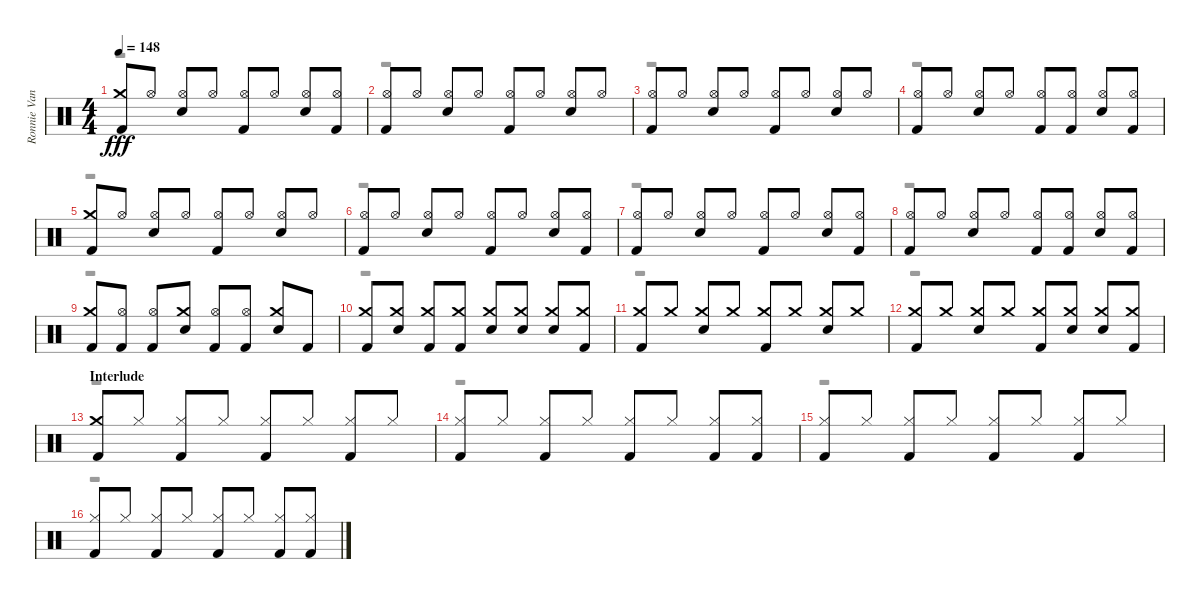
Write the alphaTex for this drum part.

\track ("Ronnie Vannucci Jr. - Drums" "Ronnie Van") {instrument percussion}
\staff {score}
\articulation defaults
\voice
\ts (4 4)
\tempo 148
\clef neutral
\ks c
("Crash medium (hit)" "Kick (hit) 2").8{dy fff} "Hi-Hat (open)".8 ("Hi-Hat (open)" "Electric Snare (hit)").8 "Hi-Hat (open)".8 ("Hi-Hat (open)" "Kick (hit) 2").8 "Hi-Hat (open)".8 ("Hi-Hat (open)" "Electric Snare (hit)").8 ("Hi-Hat (open)" "Kick (hit) 2").8 |
("Hi-Hat (open)" "Kick (hit) 2").8 "Hi-Hat (open)".8 ("Hi-Hat (open)" "Electric Snare (hit)").8 "Hi-Hat (open)".8 ("Hi-Hat (open)" "Kick (hit) 2").8 "Hi-Hat (open)".8 ("Hi-Hat (open)" "Electric Snare (hit)").8 "Hi-Hat (open)".8 |
("Hi-Hat (open)" "Kick (hit) 2").8 "Hi-Hat (open)".8 ("Hi-Hat (open)" "Electric Snare (hit)").8 "Hi-Hat (open)".8 ("Hi-Hat (open)" "Kick (hit) 2").8 "Hi-Hat (open)".8 ("Hi-Hat (open)" "Electric Snare (hit)").8 "Hi-Hat (open)".8 |
("Hi-Hat (open)" "Kick (hit) 2").8 "Hi-Hat (open)".8 ("Hi-Hat (open)" "Electric Snare (hit)").8 "Hi-Hat (open)".8 ("Hi-Hat (open)" "Kick (hit) 2").8 ("Hi-Hat (open)" "Kick (hit) 2").8 ("Hi-Hat (open)" "Electric Snare (hit)").8 ("Hi-Hat (open)" "Kick (hit) 2").8 |
("Crash medium (hit)" "Kick (hit) 2").8 "Hi-Hat (open)".8 ("Hi-Hat (open)" "Electric Snare (hit)").8 "Hi-Hat (open)".8 ("Hi-Hat (open)" "Kick (hit) 2").8 "Hi-Hat (open)".8 ("Hi-Hat (open)" "Electric Snare (hit)").8 "Hi-Hat (open)".8 |
("Hi-Hat (open)" "Kick (hit) 2").8 "Hi-Hat (open)".8 ("Hi-Hat (open)" "Electric Snare (hit)").8 "Hi-Hat (open)".8 ("Hi-Hat (open)" "Kick (hit) 2").8 "Hi-Hat (open)".8 ("Hi-Hat (open)" "Electric Snare (hit)").8 ("Hi-Hat (open)" "Kick (hit) 2").8 |
("Hi-Hat (open)" "Kick (hit) 2").8 "Hi-Hat (open)".8 ("Hi-Hat (open)" "Electric Snare (hit)").8 "Hi-Hat (open)".8 ("Hi-Hat (open)" "Kick (hit) 2").8 "Hi-Hat (open)".8 ("Hi-Hat (open)" "Electric Snare (hit)").8 ("Hi-Hat (open)" "Kick (hit) 2").8 |
("Hi-Hat (open)" "Kick (hit) 2").8 "Hi-Hat (open)".8 ("Hi-Hat (open)" "Electric Snare (hit)").8 "Hi-Hat (open)".8 ("Hi-Hat (open)" "Kick (hit) 2").8 ("Hi-Hat (open)" "Kick (hit) 2").8 ("Hi-Hat (open)" "Electric Snare (hit)").8 ("Hi-Hat (open)" "Kick (hit) 2").8 |
("Crash medium (hit)" "Kick (hit) 2").8 ("Hi-Hat (open)" "Kick (hit) 2").8 ("Hi-Hat (open)" "Kick (hit) 2").8 ("Crash medium (hit)" "Snare (hit) 2").8 ("Hi-Hat (open)" "Kick (hit) 2").8 ("Hi-Hat (open)" "Kick (hit) 2").8 ("Crash medium (hit)" "Electric Snare (hit)").8 "Kick (hit) 2".8 |
("Crash medium (hit)" "Kick (hit) 2").8 ("Crash medium (hit)" "Snare (hit) 2").8 ("Crash medium (hit)" "Kick (hit) 2").8 ("Crash medium (hit)" "Kick (hit) 2").8 ("Crash medium (hit)" "Snare (hit) 2").8 ("Crash medium (hit)" "Snare (hit) 2").8 ("Crash medium (hit)" "Electric Snare (hit)").8 ("Crash medium (hit)" "Kick (hit) 2").8 |
("Crash medium (hit)" "Kick (hit) 2").8 "Crash medium (hit)".8 ("Crash medium (hit)" "Snare (hit) 2").8 "Crash medium (hit)".8 ("Crash medium (hit)" "Kick (hit) 2").8 "Crash medium (hit)".8 ("Crash medium (hit)" "Electric Snare (hit)").8 "Crash medium (hit)".8 |
("Crash medium (hit)" "Kick (hit) 2").8 "Crash medium (hit)".8 ("Crash medium (hit)" "Snare (hit) 2").8 "Crash medium (hit)".8 ("Crash medium (hit)" "Kick (hit) 2").8 ("Crash medium (hit)" "Electric Snare (hit)").8 ("Crash medium (hit)" "Electric Snare (hit)").8 ("Crash medium (hit)" "Kick (hit) 2").8 |
\section ("" "Interlude")
("Crash medium (hit)" "Kick (hit) 2").8 "Hi-Hat (closed)".8 ("Hi-Hat (closed)" "Kick (hit) 2").8 "Hi-Hat (closed)".8 ("Hi-Hat (closed)" "Kick (hit) 2").8 "Hi-Hat (closed)".8 ("Hi-Hat (closed)" "Kick (hit) 2").8 "Hi-Hat (closed)".8 |
("Hi-Hat (closed)" "Kick (hit) 2").8 "Hi-Hat (closed)".8 ("Hi-Hat (closed)" "Kick (hit) 2").8 "Hi-Hat (closed)".8 ("Hi-Hat (closed)" "Kick (hit) 2").8 "Hi-Hat (closed)".8 ("Hi-Hat (closed)" "Kick (hit) 2").8 ("Hi-Hat (closed)" "Kick (hit) 2").8 |
("Hi-Hat (closed)" "Kick (hit) 2").8 "Hi-Hat (closed)".8 ("Hi-Hat (closed)" "Kick (hit) 2").8 "Hi-Hat (closed)".8 ("Hi-Hat (closed)" "Kick (hit) 2").8 "Hi-Hat (closed)".8 ("Hi-Hat (closed)" "Kick (hit) 2").8 "Hi-Hat (closed)".8 |
("Hi-Hat (closed)" "Kick (hit) 2").8 "Hi-Hat (closed)".8 ("Hi-Hat (closed)" "Kick (hit) 2").8 "Hi-Hat (closed)".8 ("Hi-Hat (closed)" "Kick (hit) 2").8 "Hi-Hat (closed)".8 ("Hi-Hat (closed)" "Kick (hit) 2").8 ("Hi-Hat (closed)" "Kick (hit) 2").8
\voice
\clef neutral
\ottava regular
\simile none
\ks c
r.1{dy f} |
r.1 |
r.1 |
r.1 |
r.1 |
r.1 |
r.1 |
r.1 |
r.1 |
r.1 |
r.1 |
r.1 |
r.1 |
r.1 |
r.1 |
r.1
